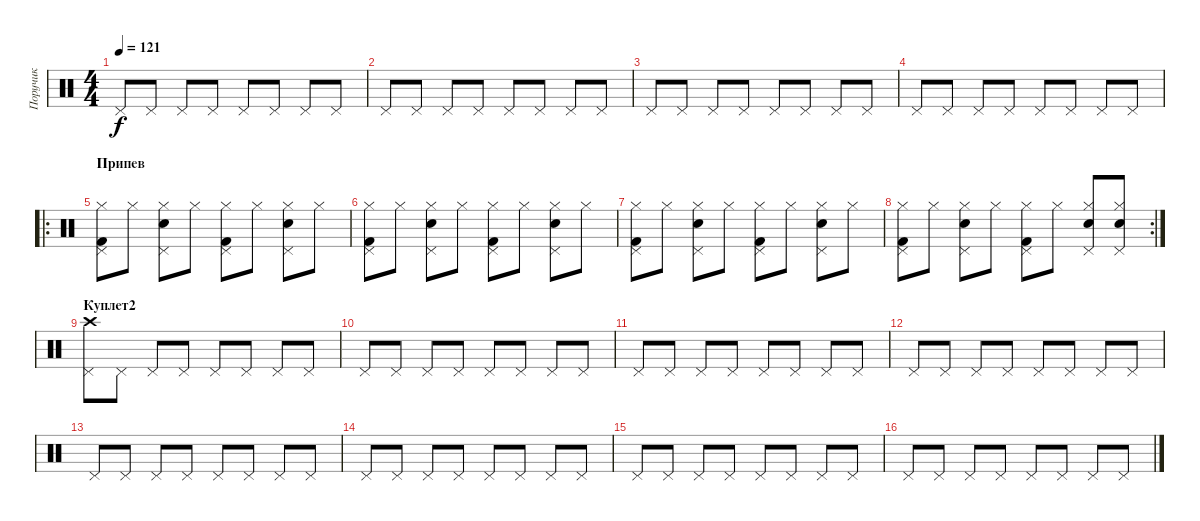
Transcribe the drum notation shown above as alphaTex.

\track ("Поручик" "Поручик") {instrument percussion}
\staff {score}
\articulation defaults
\ts (4 4)
\tempo 121
\clef neutral
\ks c "Pedal Hi-Hat (hit)".8{dy f} "Pedal Hi-Hat (hit)".8 "Pedal Hi-Hat (hit)".8 "Pedal Hi-Hat (hit)".8 "Pedal Hi-Hat (hit)".8 "Pedal Hi-Hat (hit)".8 "Pedal Hi-Hat (hit)".8 "Pedal Hi-Hat (hit)".8
|
"Pedal Hi-Hat (hit)".8 "Pedal Hi-Hat (hit)".8 "Pedal Hi-Hat (hit)".8 "Pedal Hi-Hat (hit)".8 "Pedal Hi-Hat (hit)".8 "Pedal Hi-Hat (hit)".8 "Pedal Hi-Hat (hit)".8 "Pedal Hi-Hat (hit)".8 |
"Pedal Hi-Hat (hit)".8 "Pedal Hi-Hat (hit)".8 "Pedal Hi-Hat (hit)".8 "Pedal Hi-Hat (hit)".8 "Pedal Hi-Hat (hit)".8 "Pedal Hi-Hat (hit)".8 "Pedal Hi-Hat (hit)".8 "Pedal Hi-Hat (hit)".8 |
"Pedal Hi-Hat (hit)".8 "Pedal Hi-Hat (hit)".8 "Pedal Hi-Hat (hit)".8 "Pedal Hi-Hat (hit)".8 "Pedal Hi-Hat (hit)".8 "Pedal Hi-Hat (hit)".8 "Pedal Hi-Hat (hit)".8 "Pedal Hi-Hat (hit)".8 |
\ro
\section ("" "Припев")
("Pedal Hi-Hat (hit)" "Hi-Hat (closed)" "Kick (hit) 2").8 "Hi-Hat (closed)".8 ("Pedal Hi-Hat (hit)" "Hi-Hat (closed)" "Snare (hit) 2").8 "Hi-Hat (closed)".8 ("Pedal Hi-Hat (hit)" "Hi-Hat (closed)" "Kick (hit) 2").8 "Hi-Hat (closed)".8 ("Pedal Hi-Hat (hit)" "Hi-Hat (closed)" "Snare (hit) 2").8 "Hi-Hat (closed)".8 |
("Pedal Hi-Hat (hit)" "Hi-Hat (closed)" "Kick (hit) 2").8 "Hi-Hat (closed)".8 ("Pedal Hi-Hat (hit)" "Hi-Hat (closed)" "Snare (hit) 2").8 "Hi-Hat (closed)".8 ("Pedal Hi-Hat (hit)" "Hi-Hat (closed)" "Kick (hit) 2").8 "Hi-Hat (closed)".8 ("Pedal Hi-Hat (hit)" "Hi-Hat (closed)" "Snare (hit) 2").8 "Hi-Hat (closed)".8 |
("Pedal Hi-Hat (hit)" "Hi-Hat (closed)" "Kick (hit) 2").8 "Hi-Hat (closed)".8 ("Pedal Hi-Hat (hit)" "Hi-Hat (closed)" "Snare (hit) 2").8 "Hi-Hat (closed)".8 ("Pedal Hi-Hat (hit)" "Hi-Hat (closed)" "Kick (hit) 2").8 "Hi-Hat (closed)".8 ("Pedal Hi-Hat (hit)" "Hi-Hat (closed)" "Snare (hit) 2").8 "Hi-Hat (closed)".8 |
\rc 2
("Pedal Hi-Hat (hit)" "Hi-Hat (closed)" "Kick (hit) 2").8 "Hi-Hat (closed)".8 ("Pedal Hi-Hat (hit)" "Hi-Hat (closed)" "Snare (hit) 2").8 "Hi-Hat (closed)".8 ("Pedal Hi-Hat (hit)" "Hi-Hat (closed)" "Kick (hit) 2").8 "Hi-Hat (closed)".8 ("Pedal Hi-Hat (hit)" "Hi-Hat (closed)" "Snare (hit) 2").8 ("Pedal Hi-Hat (hit)" "Hi-Hat (closed)" "Snare (hit) 2").8 |
\section ("" "Куплет2")
("Pedal Hi-Hat (hit)" "Crash high (hit)").8{volume 12 balance 0} "Pedal Hi-Hat (hit)".8{volume 10 balance 8} "Pedal Hi-Hat (hit)".8 "Pedal Hi-Hat (hit)".8 "Pedal Hi-Hat (hit)".8 "Pedal Hi-Hat (hit)".8 "Pedal Hi-Hat (hit)".8 "Pedal Hi-Hat (hit)".8 |
"Pedal Hi-Hat (hit)".8 "Pedal Hi-Hat (hit)".8 "Pedal Hi-Hat (hit)".8 "Pedal Hi-Hat (hit)".8 "Pedal Hi-Hat (hit)".8 "Pedal Hi-Hat (hit)".8 "Pedal Hi-Hat (hit)".8 "Pedal Hi-Hat (hit)".8 |
"Pedal Hi-Hat (hit)".8 "Pedal Hi-Hat (hit)".8 "Pedal Hi-Hat (hit)".8 "Pedal Hi-Hat (hit)".8 "Pedal Hi-Hat (hit)".8 "Pedal Hi-Hat (hit)".8 "Pedal Hi-Hat (hit)".8 "Pedal Hi-Hat (hit)".8 |
"Pedal Hi-Hat (hit)".8 "Pedal Hi-Hat (hit)".8 "Pedal Hi-Hat (hit)".8 "Pedal Hi-Hat (hit)".8 "Pedal Hi-Hat (hit)".8 "Pedal Hi-Hat (hit)".8 "Pedal Hi-Hat (hit)".8 "Pedal Hi-Hat (hit)".8 |
"Pedal Hi-Hat (hit)".8 "Pedal Hi-Hat (hit)".8 "Pedal Hi-Hat (hit)".8 "Pedal Hi-Hat (hit)".8 "Pedal Hi-Hat (hit)".8 "Pedal Hi-Hat (hit)".8 "Pedal Hi-Hat (hit)".8 "Pedal Hi-Hat (hit)".8 |
"Pedal Hi-Hat (hit)".8 "Pedal Hi-Hat (hit)".8 "Pedal Hi-Hat (hit)".8 "Pedal Hi-Hat (hit)".8 "Pedal Hi-Hat (hit)".8 "Pedal Hi-Hat (hit)".8 "Pedal Hi-Hat (hit)".8 "Pedal Hi-Hat (hit)".8 |
"Pedal Hi-Hat (hit)".8 "Pedal Hi-Hat (hit)".8 "Pedal Hi-Hat (hit)".8 "Pedal Hi-Hat (hit)".8 "Pedal Hi-Hat (hit)".8 "Pedal Hi-Hat (hit)".8 "Pedal Hi-Hat (hit)".8 "Pedal Hi-Hat (hit)".8 |
"Pedal Hi-Hat (hit)".8 "Pedal Hi-Hat (hit)".8 "Pedal Hi-Hat (hit)".8 "Pedal Hi-Hat (hit)".8 "Pedal Hi-Hat (hit)".8 "Pedal Hi-Hat (hit)".8 "Pedal Hi-Hat (hit)".8 "Pedal Hi-Hat (hit)".8
